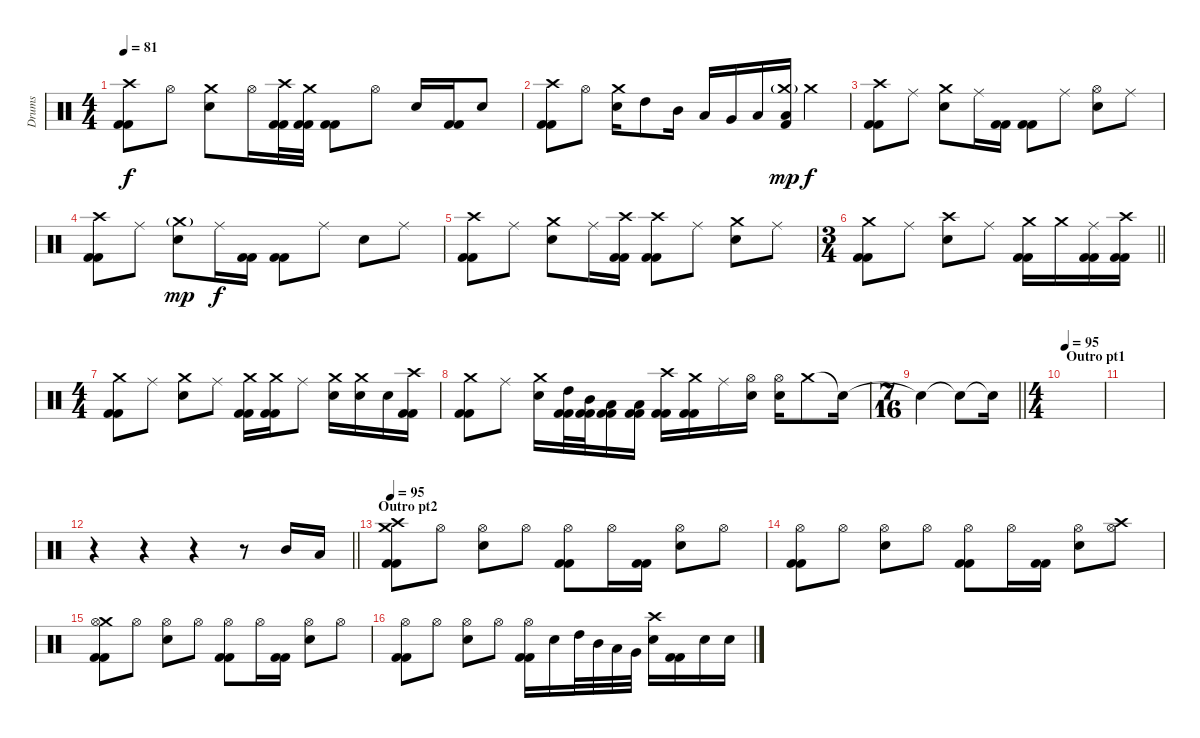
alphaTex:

\track ("Drums" "Drums") {instrument percussion}
\staff {score}
\articulation defaults
\ts (4 4)
\tempo 81
\clef neutral
\ks c
("Crash high (hit)" "Kick (hit) 2" "Kick (hit) 2").8{dy f} "Hi-Hat (open)".8 ("Crash medium (hit)" "Electric Snare (hit)").8 "Hi-Hat (open)".16 ("Crash high (hit)" "Kick (hit) 2" "Kick (hit) 2").32 ("Crash medium (hit)" "Kick (hit) 2" "Kick (hit) 2").32 ("Kick (hit) 2" "Kick (hit) 2").8 "Hi-Hat (open)".8 "Electric Snare (hit)".16 ("Kick (hit) 2" "Kick (hit) 2").16 "Electric Snare (hit)".8 |
("Crash high (hit)" "Kick (hit) 2" "Kick (hit) 2").8 "Hi-Hat (open)".8 ("Crash medium (hit)" "Electric Snare (hit)").16 "High Tom (hit)".8 "Mid Tom (hit)".16 "Low Tom (hit)".16 "Very Low Tom (hit)".16 "Low Floor Tom (hit)".16 ("Crash medium (hit)"{g} "Low Floor Tom (hit)" "Kick (hit) 2").16{dy mp} "Crash medium (hit)".4{dy f} |
("Crash high (hit)" "Kick (hit) 2" "Kick (hit) 2").8 "Ride (middle)".8 ("Crash medium (hit)" "Electric Snare (hit)").8 "Ride (middle)".16 ("Kick (hit) 2" "Kick (hit) 2").16 ("Kick (hit) 2" "Kick (hit) 2").8 "Ride (middle)".8 ("Hi-Hat (open)" "Electric Snare (hit)").8 "Ride (middle)".8 |
("Crash high (hit)" "Kick (hit) 2" "Kick (hit) 2").8 "Ride (middle)".8 ("Crash medium (hit)"{g} "Electric Snare (hit)").8{dy mp} "Ride (middle)".16{dy f} ("Kick (hit) 2" "Kick (hit) 2").16 ("Kick (hit) 2" "Kick (hit) 2").8 "Ride (middle)".8 "Electric Snare (hit)".8 "Ride (middle)".8 |
("Crash high (hit)" "Kick (hit) 2" "Kick (hit) 2").8 "Ride (middle)".8 ("Crash medium (hit)" "Electric Snare (hit)").8 "Ride (middle)".16 ("Crash high (hit)" "Kick (hit) 2" "Kick (hit) 2").16 ("Crash high (hit)" "Kick (hit) 2" "Kick (hit) 2").8 "Ride (middle)".8 ("Crash medium (hit)" "Electric Snare (hit)").8 "Ride (middle)".8 |
\ts (3 4)
\barLineRight lightlight
("Crash medium (hit)" "Kick (hit) 2" "Kick (hit) 2").8 "Ride (middle)".8 ("Crash high (hit)" "Electric Snare (hit)").8 "Ride (middle)".8 ("Crash medium (hit)" "Kick (hit) 2" "Kick (hit) 2").16 "Crash medium (hit)".16 ("Ride (middle)" "Kick (hit) 2" "Kick (hit) 2").16 ("Crash high (hit)" "Kick (hit) 2" "Kick (hit) 2").16 |
\ts (4 4)
("Crash medium (hit)" "Kick (hit) 2" "Kick (hit) 2").8 "Ride (middle)".8 ("Crash medium (hit)" "Electric Snare (hit)").8 "Ride (middle)".8 ("Crash medium (hit)" "Kick (hit) 2" "Kick (hit) 2").16 ("Crash medium (hit)" "Kick (hit) 2" "Kick (hit) 2").16 "Ride (middle)".8 ("Crash medium (hit)" "Electric Snare (hit)").16 ("Crash medium (hit)" "Electric Snare (hit)").16 "Electric Snare (hit)".16 ("Crash high (hit)" "Kick (hit) 2" "Kick (hit) 2").16 |
("Crash medium (hit)" "Kick (hit) 2" "Kick (hit) 2").8 "Ride (middle)".8 ("Crash medium (hit)" "Electric Snare (hit)").16 ("High Tom (hit)" "Kick (hit) 2" "Kick (hit) 2").32 ("Mid Tom (hit)" "Kick (hit) 2" "Kick (hit) 2").32 ("Low Tom (hit)" "Kick (hit) 2" "Kick (hit) 2").16 ("Low Tom (hit)" "Kick (hit) 2" "Kick (hit) 2").16 ("Crash high (hit)" "Kick (hit) 2" "Kick (hit) 2").16 ("Crash medium (hit)" "Kick (hit) 2" "Kick (hit) 2").16 "Ride (middle)".16 ("Hi-Hat (open)" "Electric Snare (hit)").16 ("Hi-Hat (open)" "Electric Snare (hit)").16 "Crash medium (hit)".8 "Snare (hit)"{t}.16 |
\ts (7 16)
\barLineRight lightlight "Snare (hit)"{t}.4 "Snare (hit)"{t}.8 "Snare (hit)"{t}.16
|
\ts (4 4)
\section ("" "Outro pt1")
\tempo 95
|
|
\barLineRight lightlight
r.4 r.4 r.4 r.8 "Mid Tom (hit)".16 "Low Tom (hit)".16 |
\section ("" "Outro pt2")
\tempo 95
("Crash medium (hit)" "Crash high (hit)" "Kick (hit) 2" "Kick (hit) 2").8 "Hi-Hat (open)".8 ("Hi-Hat (open)" "Electric Snare (hit)").8 "Hi-Hat (open)".8 ("Hi-Hat (open)" "Kick (hit) 2" "Kick (hit) 2").8 "Hi-Hat (open)".16 ("Kick (hit) 2" "Kick (hit) 2").16 ("Hi-Hat (open)" "Electric Snare (hit)").8 "Hi-Hat (open)".8 |
("Hi-Hat (open)" "Kick (hit) 2" "Kick (hit) 2").8 "Hi-Hat (open)".8 ("Hi-Hat (open)" "Electric Snare (hit)").8 "Hi-Hat (open)".8 ("Hi-Hat (open)" "Kick (hit) 2" "Kick (hit) 2").8 "Hi-Hat (open)".16 ("Kick (hit) 2" "Kick (hit) 2").16 ("Hi-Hat (open)" "Electric Snare (hit)").8 ("Crash high (hit)" "Hi-Hat (open)").8 |
("Crash medium (hit)" "Hi-Hat (open)" "Kick (hit) 2" "Kick (hit) 2").8 "Hi-Hat (open)".8 ("Hi-Hat (open)" "Electric Snare (hit)").8 "Hi-Hat (open)".8 ("Hi-Hat (open)" "Kick (hit) 2" "Kick (hit) 2").8 "Hi-Hat (open)".16 ("Kick (hit) 2" "Kick (hit) 2").16 ("Hi-Hat (open)" "Electric Snare (hit)").8 "Hi-Hat (open)".8 |
("Hi-Hat (open)" "Kick (hit) 2" "Kick (hit) 2").8 "Hi-Hat (open)".8 ("Hi-Hat (open)" "Electric Snare (hit)").8 "Hi-Hat (open)".8 ("Hi-Hat (open)" "Kick (hit) 2" "Kick (hit) 2").16 "Electric Snare (hit)".16 "High Tom (hit)".32 "Mid Tom (hit)".32 "Low Tom (hit)".32 "Very Low Tom (hit)".32 ("Crash high (hit)" "Electric Snare (hit)").16 ("Kick (hit) 2" "Kick (hit) 2").16 "Electric Snare (hit)".16 "Electric Snare (hit)".16
